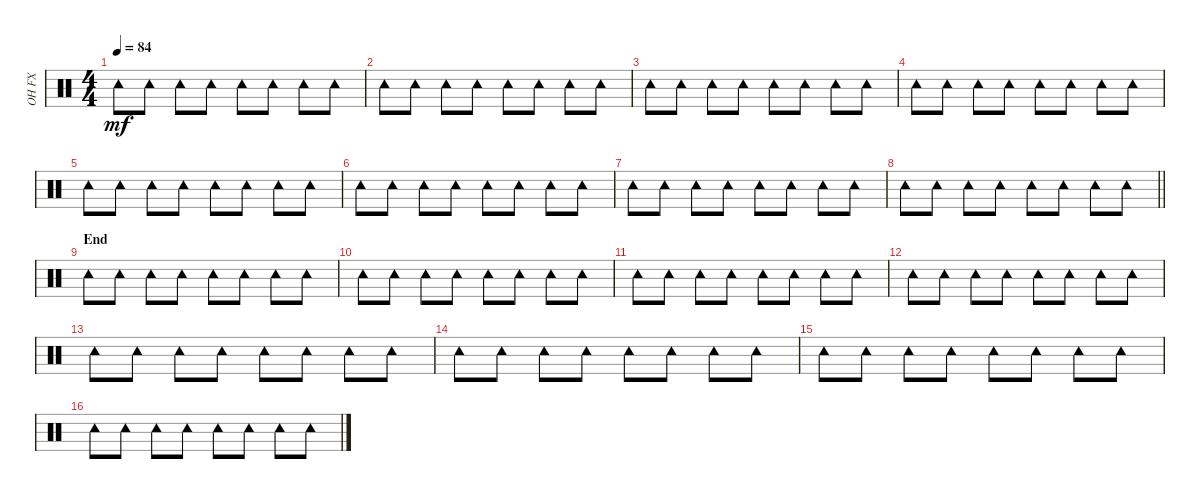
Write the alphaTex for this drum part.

\track ("OH FX" "OH FX") {instrument percussion}
\staff {score}
\articulation defaults
\ts (4 4)
\tempo 84
\clef neutral
\ks c "Tambourine (hit)".8{dy mf} "Tambourine (hit)".8 "Tambourine (hit)".8 "Tambourine (hit)".8 "Tambourine (hit)".8 "Tambourine (hit)".8 "Tambourine (hit)".8 "Tambourine (hit)".8
|
"Tambourine (hit)".8 "Tambourine (hit)".8 "Tambourine (hit)".8 "Tambourine (hit)".8 "Tambourine (hit)".8 "Tambourine (hit)".8 "Tambourine (hit)".8 "Tambourine (hit)".8 |
"Tambourine (hit)".8 "Tambourine (hit)".8 "Tambourine (hit)".8 "Tambourine (hit)".8 "Tambourine (hit)".8 "Tambourine (hit)".8 "Tambourine (hit)".8 "Tambourine (hit)".8 |
"Tambourine (hit)".8 "Tambourine (hit)".8 "Tambourine (hit)".8 "Tambourine (hit)".8 "Tambourine (hit)".8 "Tambourine (hit)".8 "Tambourine (hit)".8 "Tambourine (hit)".8 |
"Tambourine (hit)".8 "Tambourine (hit)".8 "Tambourine (hit)".8 "Tambourine (hit)".8 "Tambourine (hit)".8 "Tambourine (hit)".8 "Tambourine (hit)".8 "Tambourine (hit)".8 |
"Tambourine (hit)".8 "Tambourine (hit)".8 "Tambourine (hit)".8 "Tambourine (hit)".8 "Tambourine (hit)".8 "Tambourine (hit)".8 "Tambourine (hit)".8 "Tambourine (hit)".8 |
"Tambourine (hit)".8 "Tambourine (hit)".8 "Tambourine (hit)".8 "Tambourine (hit)".8 "Tambourine (hit)".8 "Tambourine (hit)".8 "Tambourine (hit)".8 "Tambourine (hit)".8 |
\barLineRight lightlight "Tambourine (hit)".8 "Tambourine (hit)".8 "Tambourine (hit)".8 "Tambourine (hit)".8 "Tambourine (hit)".8 "Tambourine (hit)".8 "Tambourine (hit)".8 "Tambourine (hit)".8
|
\section ("" "End")
"Tambourine (hit)".8 "Tambourine (hit)".8 "Tambourine (hit)".8 "Tambourine (hit)".8 "Tambourine (hit)".8 "Tambourine (hit)".8 "Tambourine (hit)".8 "Tambourine (hit)".8 |
"Tambourine (hit)".8 "Tambourine (hit)".8 "Tambourine (hit)".8 "Tambourine (hit)".8 "Tambourine (hit)".8 "Tambourine (hit)".8 "Tambourine (hit)".8 "Tambourine (hit)".8 |
"Tambourine (hit)".8 "Tambourine (hit)".8 "Tambourine (hit)".8 "Tambourine (hit)".8 "Tambourine (hit)".8 "Tambourine (hit)".8 "Tambourine (hit)".8 "Tambourine (hit)".8 |
"Tambourine (hit)".8 "Tambourine (hit)".8 "Tambourine (hit)".8 "Tambourine (hit)".8 "Tambourine (hit)".8 "Tambourine (hit)".8 "Tambourine (hit)".8 "Tambourine (hit)".8 |
"Tambourine (hit)".8 "Tambourine (hit)".8 "Tambourine (hit)".8 "Tambourine (hit)".8 "Tambourine (hit)".8 "Tambourine (hit)".8 "Tambourine (hit)".8 "Tambourine (hit)".8 |
"Tambourine (hit)".8 "Tambourine (hit)".8 "Tambourine (hit)".8 "Tambourine (hit)".8 "Tambourine (hit)".8 "Tambourine (hit)".8 "Tambourine (hit)".8 "Tambourine (hit)".8 |
"Tambourine (hit)".8 "Tambourine (hit)".8 "Tambourine (hit)".8 "Tambourine (hit)".8 "Tambourine (hit)".8 "Tambourine (hit)".8 "Tambourine (hit)".8 "Tambourine (hit)".8 |
"Tambourine (hit)".8 "Tambourine (hit)".8 "Tambourine (hit)".8 "Tambourine (hit)".8 "Tambourine (hit)".8 "Tambourine (hit)".8 "Tambourine (hit)".8 "Tambourine (hit)".8
